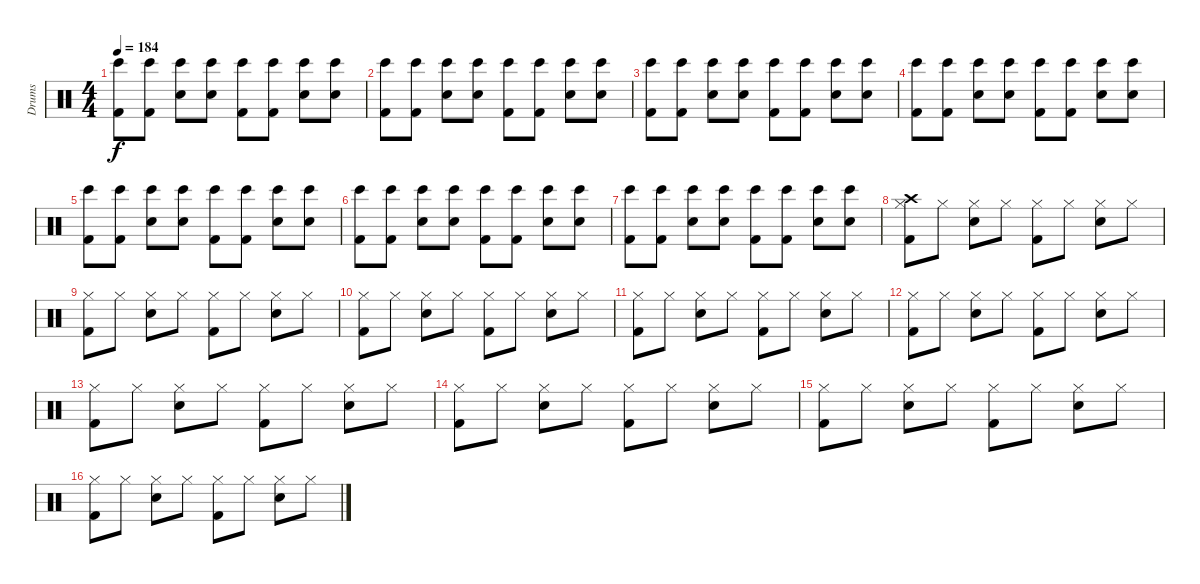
\track ("Drums" "Drums") {instrument percussion}
\staff {score}
\articulation defaults
\ts (4 4)
\tempo 184
\clef neutral
\ks c
("Bongo High (hit)" "Kick (hit) 2").8{dy f} ("Bongo High (hit)" "Kick (hit) 2").8 ("Bongo High (hit)" "Snare (hit) 2").8 ("Bongo High (hit)" "Snare (hit) 2").8 ("Bongo High (hit)" "Kick (hit) 2").8 ("Bongo High (hit)" "Kick (hit) 2").8 ("Bongo High (hit)" "Snare (hit) 2").8 ("Bongo High (hit)" "Snare (hit) 2").8 |
("Bongo High (hit)" "Kick (hit) 2").8 ("Bongo High (hit)" "Kick (hit) 2").8 ("Bongo High (hit)" "Snare (hit) 2").8 ("Bongo High (hit)" "Snare (hit) 2").8 ("Bongo High (hit)" "Kick (hit) 2").8 ("Bongo High (hit)" "Kick (hit) 2").8 ("Bongo High (hit)" "Snare (hit) 2").8 ("Bongo High (hit)" "Snare (hit) 2").8 |
("Bongo High (hit)" "Kick (hit) 2").8 ("Bongo High (hit)" "Kick (hit) 2").8 ("Bongo High (hit)" "Snare (hit) 2").8 ("Bongo High (hit)" "Snare (hit) 2").8 ("Bongo High (hit)" "Kick (hit) 2").8 ("Bongo High (hit)" "Kick (hit) 2").8 ("Bongo High (hit)" "Snare (hit) 2").8 ("Bongo High (hit)" "Snare (hit) 2").8 |
("Bongo High (hit)" "Kick (hit) 2").8 ("Bongo High (hit)" "Kick (hit) 2").8 ("Bongo High (hit)" "Snare (hit) 2").8 ("Bongo High (hit)" "Snare (hit) 2").8 ("Bongo High (hit)" "Kick (hit) 2").8 ("Bongo High (hit)" "Kick (hit) 2").8 ("Bongo High (hit)" "Snare (hit) 2").8 ("Bongo High (hit)" "Snare (hit) 2").8 |
("Bongo High (hit)" "Kick (hit) 2").8 ("Bongo High (hit)" "Kick (hit) 2").8 ("Bongo High (hit)" "Snare (hit) 2").8 ("Bongo High (hit)" "Snare (hit) 2").8 ("Bongo High (hit)" "Kick (hit) 2").8 ("Bongo High (hit)" "Kick (hit) 2").8 ("Bongo High (hit)" "Snare (hit) 2").8 ("Bongo High (hit)" "Snare (hit) 2").8 |
("Bongo High (hit)" "Kick (hit) 2").8 ("Bongo High (hit)" "Kick (hit) 2").8 ("Bongo High (hit)" "Snare (hit) 2").8 ("Bongo High (hit)" "Snare (hit) 2").8 ("Bongo High (hit)" "Kick (hit) 2").8 ("Bongo High (hit)" "Kick (hit) 2").8 ("Bongo High (hit)" "Snare (hit) 2").8 ("Bongo High (hit)" "Snare (hit) 2").8 |
("Bongo High (hit)" "Kick (hit) 2").8 ("Bongo High (hit)" "Kick (hit) 2").8 ("Bongo High (hit)" "Snare (hit) 2").8 ("Bongo High (hit)" "Snare (hit) 2").8 ("Bongo High (hit)" "Kick (hit) 2").8 ("Bongo High (hit)" "Kick (hit) 2").8 ("Bongo High (hit)" "Snare (hit) 2").8 ("Bongo High (hit)" "Snare (hit) 2").8 |
("Hi-Hat (closed)" "Kick (hit) 2" "Crash high (hit)").8 "Hi-Hat (closed)".8 ("Hi-Hat (closed)" "Snare (hit) 2").8 "Hi-Hat (closed)".8 ("Hi-Hat (closed)" "Kick (hit) 2").8 "Hi-Hat (closed)".8 ("Hi-Hat (closed)" "Snare (hit) 2").8 "Hi-Hat (closed)".8 |
("Hi-Hat (closed)" "Kick (hit) 2").8 "Hi-Hat (closed)".8 ("Hi-Hat (closed)" "Snare (hit) 2").8 "Hi-Hat (closed)".8 ("Hi-Hat (closed)" "Kick (hit) 2").8 "Hi-Hat (closed)".8 ("Hi-Hat (closed)" "Snare (hit) 2").8 "Hi-Hat (closed)".8 |
("Hi-Hat (closed)" "Kick (hit) 2").8 "Hi-Hat (closed)".8 ("Hi-Hat (closed)" "Snare (hit) 2").8 "Hi-Hat (closed)".8 ("Hi-Hat (closed)" "Kick (hit) 2").8 "Hi-Hat (closed)".8 ("Hi-Hat (closed)" "Snare (hit) 2").8 "Hi-Hat (closed)".8 |
("Hi-Hat (closed)" "Kick (hit) 2").8 "Hi-Hat (closed)".8 ("Hi-Hat (closed)" "Snare (hit) 2").8 "Hi-Hat (closed)".8 ("Hi-Hat (closed)" "Kick (hit) 2").8 "Hi-Hat (closed)".8 ("Hi-Hat (closed)" "Snare (hit) 2").8 "Hi-Hat (closed)".8 |
("Hi-Hat (closed)" "Kick (hit) 2").8 "Hi-Hat (closed)".8 ("Hi-Hat (closed)" "Snare (hit) 2").8 "Hi-Hat (closed)".8 ("Hi-Hat (closed)" "Kick (hit) 2").8 "Hi-Hat (closed)".8 ("Hi-Hat (closed)" "Snare (hit) 2").8 "Hi-Hat (closed)".8 |
("Hi-Hat (closed)" "Kick (hit) 2").8 "Hi-Hat (closed)".8 ("Hi-Hat (closed)" "Snare (hit) 2").8 "Hi-Hat (closed)".8 ("Hi-Hat (closed)" "Kick (hit) 2").8 "Hi-Hat (closed)".8 ("Hi-Hat (closed)" "Snare (hit) 2").8 "Hi-Hat (closed)".8 |
("Hi-Hat (closed)" "Kick (hit) 2").8 "Hi-Hat (closed)".8 ("Hi-Hat (closed)" "Snare (hit) 2").8 "Hi-Hat (closed)".8 ("Hi-Hat (closed)" "Kick (hit) 2").8 "Hi-Hat (closed)".8 ("Hi-Hat (closed)" "Snare (hit) 2").8 "Hi-Hat (closed)".8 |
("Hi-Hat (closed)" "Kick (hit) 2").8 "Hi-Hat (closed)".8 ("Hi-Hat (closed)" "Snare (hit) 2").8 "Hi-Hat (closed)".8 ("Hi-Hat (closed)" "Kick (hit) 2").8 "Hi-Hat (closed)".8 ("Hi-Hat (closed)" "Snare (hit) 2").8 "Hi-Hat (closed)".8 |
("Hi-Hat (closed)" "Kick (hit) 2").8 "Hi-Hat (closed)".8 ("Hi-Hat (closed)" "Snare (hit) 2").8 "Hi-Hat (closed)".8 ("Hi-Hat (closed)" "Kick (hit) 2").8 "Hi-Hat (closed)".8 ("Hi-Hat (closed)" "Snare (hit) 2").8 "Hi-Hat (closed)".8
